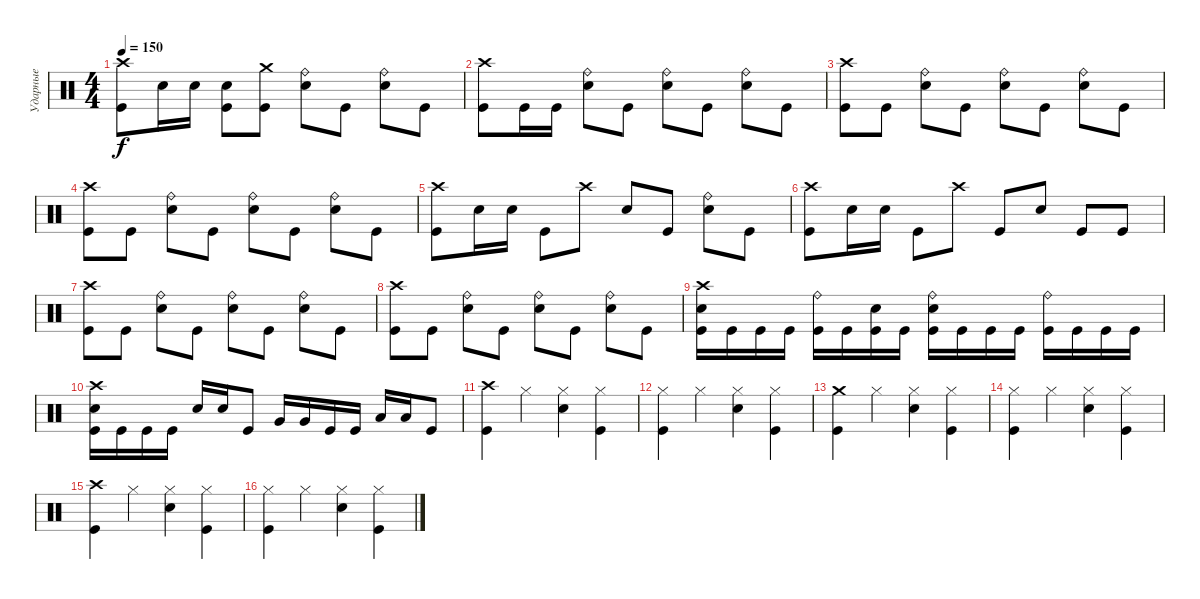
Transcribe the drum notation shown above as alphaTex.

\track ("Ударные" "Ударные") {instrument percussion}
\staff {score}
\articulation defaults
\ts (4 4)
\tempo 150
\clef neutral
\ks c
("Crash high (hit)" "Kick (hit)").8{dy f} "Electric Snare (hit)".16 "Electric Snare (hit)".16 ("Electric Snare (hit)" "Kick (hit)").8 ("Crash medium (hit)" "Kick (hit)").8 ("Ride (bell)" "Electric Snare (hit)").8 "Kick (hit)".8 ("Ride (bell)" "Electric Snare (hit)").8 "Kick (hit)".8 |
("Crash high (hit)" "Kick (hit)").8 "Kick (hit)".16 "Kick (hit)".16 ("Ride (bell)" "Electric Snare (hit)").8 "Kick (hit)".8 ("Ride (bell)" "Electric Snare (hit)").8 "Kick (hit)".8 ("Ride (bell)" "Electric Snare (hit)").8 "Kick (hit)".8 |
("Crash high (hit)" "Kick (hit)").8 "Kick (hit)".8 ("Ride (bell)" "Electric Snare (hit)").8 "Kick (hit)".8 ("Ride (bell)" "Electric Snare (hit)").8 "Kick (hit)".8 ("Ride (bell)" "Electric Snare (hit)").8 "Kick (hit)".8 |
("Crash high (hit)" "Kick (hit)").8 "Kick (hit)".8 ("Ride (bell)" "Electric Snare (hit)").8 "Kick (hit)".8 ("Ride (bell)" "Electric Snare (hit)").8 "Kick (hit)".8 ("Ride (bell)" "Electric Snare (hit)").8 "Kick (hit)".8 |
("Crash high (hit)" "Kick (hit)").8 "Electric Snare (hit)".16 "Electric Snare (hit)".16 "Kick (hit)".8 "Crash high (hit)".8 "Electric Snare (hit)".8 "Kick (hit)".8 ("Ride (bell)" "Electric Snare (hit)").8 "Kick (hit)".8 |
("Crash high (hit)" "Kick (hit)").8 "Electric Snare (hit)".16 "Electric Snare (hit)".16 "Kick (hit)".8 "Crash high (hit)".8 "Kick (hit)".8 "Electric Snare (hit)".8 "Kick (hit)".8 "Kick (hit)".8 |
("Crash high (hit)" "Kick (hit)").8 "Kick (hit)".8 ("Ride (bell)" "Electric Snare (hit)").8 "Kick (hit)".8 ("Ride (bell)" "Electric Snare (hit)").8 "Kick (hit)".8 ("Ride (bell)" "Electric Snare (hit)").8 "Kick (hit)".8 |
("Crash high (hit)" "Kick (hit)").8 "Kick (hit)".8 ("Ride (bell)" "Electric Snare (hit)").8 "Kick (hit)".8 ("Ride (bell)" "Electric Snare (hit)").8 "Kick (hit)".8 ("Ride (bell)" "Electric Snare (hit)").8 "Kick (hit)".8 |
("Crash high (hit)" "Electric Snare (hit)" "Kick (hit)").16 "Kick (hit)".16 "Kick (hit)".16 "Kick (hit)".16 ("Ride (bell)" "Kick (hit)").16 "Kick (hit)".16 ("Electric Snare (hit)" "Kick (hit)").16 "Kick (hit)".16 ("Ride (bell)" "Electric Snare (hit)" "Kick (hit)").16 "Kick (hit)".16 "Kick (hit)".16 "Kick (hit)".16 ("Ride (bell)" "Kick (hit)").16 "Kick (hit)".16 "Kick (hit)".16 "Kick (hit)".16 |
("Crash high (hit)" "Electric Snare (hit)" "Kick (hit)").16 "Kick (hit)".16 "Kick (hit)".16 "Kick (hit)".16 "Electric Snare (hit)".16 "Electric Snare (hit)".16 "Kick (hit)".8 "Very Low Tom (hit)".16 "Very Low Tom (hit)".16 "Kick (hit)".16 "Kick (hit)".16 "Low Tom (hit)".16 "Low Tom (hit)".16 "Kick (hit)".8 |
("Crash high (hit)" "Kick (hit)").4 "Hi-Hat (closed)".4 ("Hi-Hat (closed)" "Electric Snare (hit)").4 ("Hi-Hat (closed)" "Kick (hit)").4 |
("Hi-Hat (closed)" "Kick (hit)").4 "Hi-Hat (closed)".4 ("Hi-Hat (closed)" "Electric Snare (hit)").4 ("Hi-Hat (closed)" "Kick (hit)").4 |
("Crash medium (hit)" "Kick (hit)").4 "Hi-Hat (closed)".4 ("Hi-Hat (closed)" "Electric Snare (hit)").4 ("Hi-Hat (closed)" "Kick (hit)").4 |
("Hi-Hat (closed)" "Kick (hit)").4 "Hi-Hat (closed)".4 ("Hi-Hat (closed)" "Electric Snare (hit)").4 ("Hi-Hat (closed)" "Kick (hit)").4 |
("Crash high (hit)" "Kick (hit)").4 "Hi-Hat (closed)".4 ("Hi-Hat (closed)" "Electric Snare (hit)").4 ("Hi-Hat (closed)" "Kick (hit)").4 |
("Hi-Hat (closed)" "Kick (hit)").4 "Hi-Hat (closed)".4 ("Hi-Hat (closed)" "Electric Snare (hit)").4 ("Hi-Hat (closed)" "Kick (hit)").4
